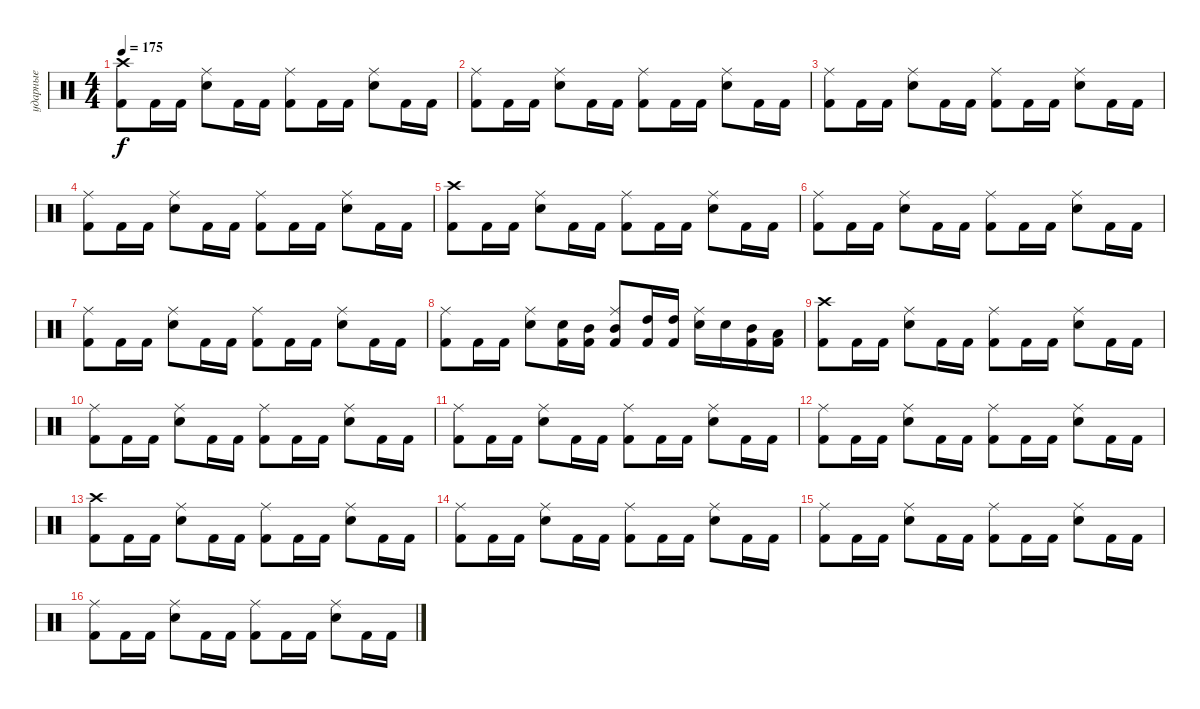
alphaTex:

\track ("ударные" "ударные") {instrument percussion}
\staff {score}
\articulation defaults
\ts (4 4)
\tempo 175
\clef neutral
\ks c
("Kick (hit) 2" "Crash high (hit)").8{dy f} "Kick (hit) 2".16 "Kick (hit) 2".16 ("Snare (hit) 2" "Ride (middle)").8 "Kick (hit) 2".16 "Kick (hit) 2".16 ("Kick (hit) 2" "Ride (middle)").8 "Kick (hit) 2".16 "Kick (hit) 2".16 ("Snare (hit) 2" "Ride (middle)").8 "Kick (hit) 2".16 "Kick (hit) 2".16 |
("Kick (hit) 2" "Ride (middle)").8 "Kick (hit) 2".16 "Kick (hit) 2".16 ("Snare (hit) 2" "Ride (middle)").8 "Kick (hit) 2".16 "Kick (hit) 2".16 ("Kick (hit) 2" "Ride (middle)").8 "Kick (hit) 2".16 "Kick (hit) 2".16 ("Snare (hit) 2" "Ride (middle)").8 "Kick (hit) 2".16 "Kick (hit) 2".16 |
("Kick (hit) 2" "Ride (middle)").8 "Kick (hit) 2".16 "Kick (hit) 2".16 ("Snare (hit) 2" "Ride (middle)").8 "Kick (hit) 2".16 "Kick (hit) 2".16 ("Kick (hit) 2" "Ride (middle)").8 "Kick (hit) 2".16 "Kick (hit) 2".16 ("Snare (hit) 2" "Ride (middle)").8 "Kick (hit) 2".16 "Kick (hit) 2".16 |
("Kick (hit) 2" "Ride (middle)").8 "Kick (hit) 2".16 "Kick (hit) 2".16 ("Snare (hit) 2" "Ride (middle)").8 "Kick (hit) 2".16 "Kick (hit) 2".16 ("Kick (hit) 2" "Ride (middle)").8 "Kick (hit) 2".16 "Kick (hit) 2".16 ("Snare (hit) 2" "Ride (middle)").8 "Kick (hit) 2".16 "Kick (hit) 2".16 |
("Kick (hit) 2" "Crash high (hit)").8 "Kick (hit) 2".16 "Kick (hit) 2".16 ("Snare (hit) 2" "Ride (middle)").8 "Kick (hit) 2".16 "Kick (hit) 2".16 ("Kick (hit) 2" "Ride (middle)").8 "Kick (hit) 2".16 "Kick (hit) 2".16 ("Snare (hit) 2" "Ride (middle)").8 "Kick (hit) 2".16 "Kick (hit) 2".16 |
("Kick (hit) 2" "Ride (middle)").8 "Kick (hit) 2".16 "Kick (hit) 2".16 ("Snare (hit) 2" "Ride (middle)").8 "Kick (hit) 2".16 "Kick (hit) 2".16 ("Kick (hit) 2" "Ride (middle)").8 "Kick (hit) 2".16 "Kick (hit) 2".16 ("Snare (hit) 2" "Ride (middle)").8 "Kick (hit) 2".16 "Kick (hit) 2".16 |
("Kick (hit) 2" "Ride (middle)").8 "Kick (hit) 2".16 "Kick (hit) 2".16 ("Snare (hit) 2" "Ride (middle)").8 "Kick (hit) 2".16 "Kick (hit) 2".16 ("Kick (hit) 2" "Ride (middle)").8 "Kick (hit) 2".16 "Kick (hit) 2".16 ("Snare (hit) 2" "Ride (middle)").8 "Kick (hit) 2".16 "Kick (hit) 2".16 |
("Kick (hit) 2" "Ride (middle)").8 "Kick (hit) 2".16 "Kick (hit) 2".16 ("Snare (hit) 2" "Ride (middle)").8 ("Kick (hit) 2" "Snare (hit) 2").16 ("Kick (hit) 2" "Mid Tom (hit)").16 ("Kick (hit) 2" "Mid Tom (hit)" "Ride (middle)").8 ("Kick (hit) 2" "High Tom (hit)").16 ("Kick (hit) 2" "High Tom (hit)").16 ("Snare (hit) 2" "Ride (middle)").16 "Snare (hit) 2".16 ("Kick (hit) 2" "Mid Tom (hit)").16 ("Kick (hit) 2" "Low Tom (hit)").16 |
("Kick (hit) 2" "Crash high (hit)").8 "Kick (hit) 2".16 "Kick (hit) 2".16 ("Snare (hit) 2" "Ride (middle)").8 "Kick (hit) 2".16 "Kick (hit) 2".16 ("Kick (hit) 2" "Ride (middle)").8 "Kick (hit) 2".16 "Kick (hit) 2".16 ("Snare (hit) 2" "Ride (middle)").8 "Kick (hit) 2".16 "Kick (hit) 2".16 |
("Kick (hit) 2" "Ride (middle)").8 "Kick (hit) 2".16 "Kick (hit) 2".16 ("Snare (hit) 2" "Ride (middle)").8 "Kick (hit) 2".16 "Kick (hit) 2".16 ("Kick (hit) 2" "Ride (middle)").8 "Kick (hit) 2".16 "Kick (hit) 2".16 ("Snare (hit) 2" "Ride (middle)").8 "Kick (hit) 2".16 "Kick (hit) 2".16 |
("Kick (hit) 2" "Ride (middle)").8 "Kick (hit) 2".16 "Kick (hit) 2".16 ("Snare (hit) 2" "Ride (middle)").8 "Kick (hit) 2".16 "Kick (hit) 2".16 ("Kick (hit) 2" "Ride (middle)").8 "Kick (hit) 2".16 "Kick (hit) 2".16 ("Snare (hit) 2" "Ride (middle)").8 "Kick (hit) 2".16 "Kick (hit) 2".16 |
("Kick (hit) 2" "Ride (middle)").8 "Kick (hit) 2".16 "Kick (hit) 2".16 ("Snare (hit) 2" "Ride (middle)").8 "Kick (hit) 2".16 "Kick (hit) 2".16 ("Kick (hit) 2" "Ride (middle)").8 "Kick (hit) 2".16 "Kick (hit) 2".16 ("Snare (hit) 2" "Ride (middle)").8 "Kick (hit) 2".16 "Kick (hit) 2".16 |
("Kick (hit) 2" "Crash high (hit)").8 "Kick (hit) 2".16 "Kick (hit) 2".16 ("Snare (hit) 2" "Ride (middle)").8 "Kick (hit) 2".16 "Kick (hit) 2".16 ("Kick (hit) 2" "Ride (middle)").8 "Kick (hit) 2".16 "Kick (hit) 2".16 ("Snare (hit) 2" "Ride (middle)").8 "Kick (hit) 2".16 "Kick (hit) 2".16 |
("Kick (hit) 2" "Ride (middle)").8 "Kick (hit) 2".16 "Kick (hit) 2".16 ("Snare (hit) 2" "Ride (middle)").8 "Kick (hit) 2".16 "Kick (hit) 2".16 ("Kick (hit) 2" "Ride (middle)").8 "Kick (hit) 2".16 "Kick (hit) 2".16 ("Snare (hit) 2" "Ride (middle)").8 "Kick (hit) 2".16 "Kick (hit) 2".16 |
("Kick (hit) 2" "Ride (middle)").8 "Kick (hit) 2".16 "Kick (hit) 2".16 ("Snare (hit) 2" "Ride (middle)").8 "Kick (hit) 2".16 "Kick (hit) 2".16 ("Kick (hit) 2" "Ride (middle)").8 "Kick (hit) 2".16 "Kick (hit) 2".16 ("Snare (hit) 2" "Ride (middle)").8 "Kick (hit) 2".16 "Kick (hit) 2".16 |
("Kick (hit) 2" "Ride (middle)").8 "Kick (hit) 2".16 "Kick (hit) 2".16 ("Snare (hit) 2" "Ride (middle)").8 "Kick (hit) 2".16 "Kick (hit) 2".16 ("Kick (hit) 2" "Ride (middle)").8 "Kick (hit) 2".16 "Kick (hit) 2".16 ("Snare (hit) 2" "Ride (middle)").8 "Kick (hit) 2".16 "Kick (hit) 2".16
